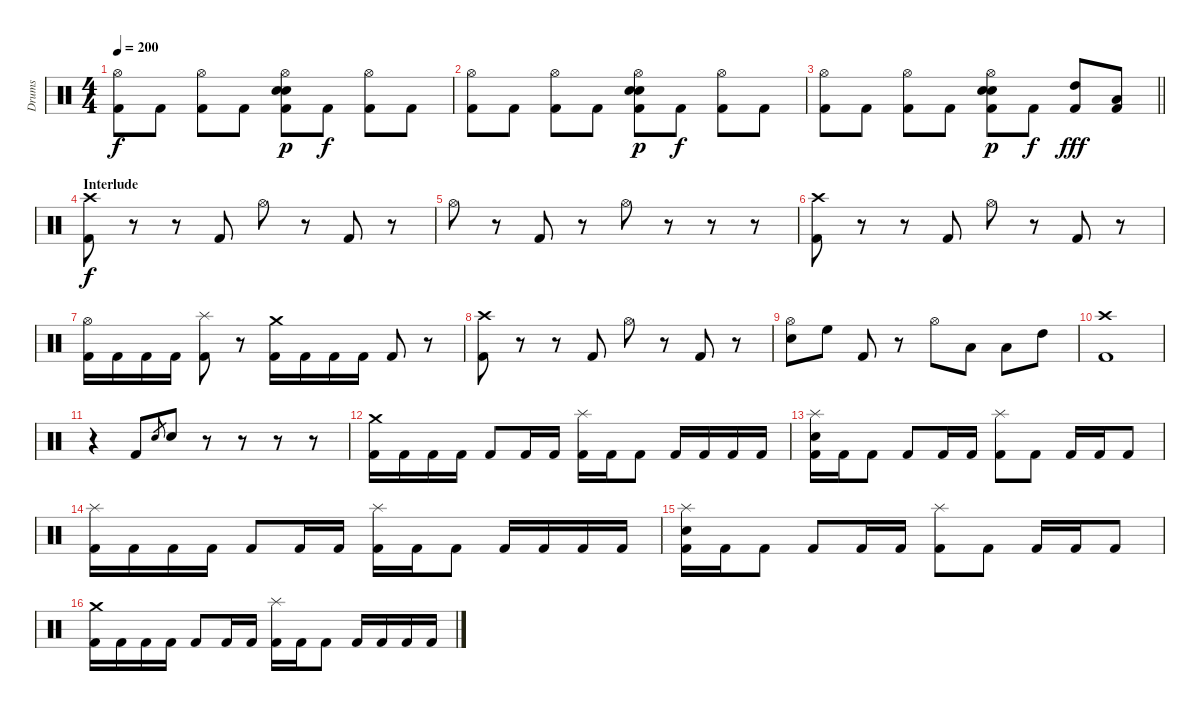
\track ("Drums" "Drums") {instrument percussion}
\staff {score}
\articulation defaults
\ts (4 4)
\tempo 200
\clef neutral
\ks c
("Hi-Hat (open)" "Kick (hit) 2").8{dy f} "Kick (hit) 2".8 ("Hi-Hat (open)" "Kick (hit) 2").8 "Kick (hit) 2".8 ("Hi-Hat (open)" "Snare (hit) 2" "Electric Snare (hit)" "Kick (hit) 2").8{dy p} "Kick (hit) 2".8{dy f} ("Hi-Hat (open)" "Kick (hit) 2").8 "Kick (hit) 2".8 |
("Hi-Hat (open)" "Kick (hit) 2").8 "Kick (hit) 2".8 ("Hi-Hat (open)" "Kick (hit) 2").8 "Kick (hit) 2".8 ("Hi-Hat (open)" "Snare (hit) 2" "Electric Snare (hit)" "Kick (hit) 2").8{dy p} "Kick (hit) 2".8{dy f} ("Hi-Hat (open)" "Kick (hit) 2").8 "Kick (hit) 2".8 |
\barLineRight lightlight
("Hi-Hat (open)" "Kick (hit) 2").8 "Kick (hit) 2".8 ("Hi-Hat (open)" "Kick (hit) 2").8 "Kick (hit) 2".8 ("Hi-Hat (open)" "Snare (hit) 2" "Electric Snare (hit)" "Kick (hit) 2").8{dy p} "Kick (hit) 2".8{dy f} ("High Tom (hit)" "Kick (hit) 2").8{dy fff} ("Low Tom (hit)" "Kick (hit) 2").8 |
\section ("" "Interlude")
("Crash high (hit)" "Kick (hit) 2").8{dy f} r.8 r.8 "Kick (hit) 2".8 "Hi-Hat (open)".8 r.8 "Kick (hit) 2".8 r.8 |
"Hi-Hat (open)".8 r.8 "Kick (hit) 2".8 r.8 "Hi-Hat (open)".8 r.8 r.8 r.8 |
("Crash high (hit)" "Kick (hit) 2").8 r.8 r.8 "Kick (hit) 2".8 "Hi-Hat (open)".8 r.8 "Kick (hit) 2".8 r.8 |
("Hi-Hat (open)" "Kick (hit) 2").16 "Kick (hit) 2".16 "Kick (hit) 2".16 "Kick (hit) 2".16 ("Splash (hit)" "Kick (hit) 2").8 r.8 ("Crash medium (hit)" "Kick (hit) 2").16 "Kick (hit) 2".16 "Kick (hit) 2".16 "Kick (hit) 2".16 "Kick (hit) 2".8 r.8 |
("Crash high (hit)" "Kick (hit) 2").8 r.8 r.8 "Kick (hit) 2".8 "Hi-Hat (open)".8 r.8 "Kick (hit) 2".8 r.8 |
("Hi-Hat (open)" "Electric Snare (hit)").8 "High Floor Tom (hit)".8 "Kick (hit) 2".8 r.8 "Hi-Hat (open)".8 "Low Tom (hit)".8 "Low Tom (hit)".8 "High Tom (hit)".8 |
("Crash high (hit)" "Kick (hit) 2").1 |
r.4 "Kick (hit) 2".8 "Electric Snare (hit)".8{gr} "Electric Snare (hit)".8 r.8 r.8 r.8 r.8 |
("Crash medium (hit)" "Kick (hit) 2").16 "Kick (hit) 2".16 "Kick (hit) 2".16 "Kick (hit) 2".16 "Kick (hit) 2".8 "Kick (hit) 2".16 "Kick (hit) 2".16 ("Splash (hit)" "Kick (hit) 2").16 "Kick (hit) 2".16 "Kick (hit) 2".8 "Kick (hit) 2".16 "Kick (hit) 2".16 "Kick (hit) 2".16 "Kick (hit) 2".16 |
("Splash (hit)" "Electric Snare (hit)" "Kick (hit) 2").16 "Kick (hit) 2".16 "Kick (hit) 2".8 "Kick (hit) 2".8 "Kick (hit) 2".16 "Kick (hit) 2".16 ("Splash (hit)" "Kick (hit) 2").8 "Kick (hit) 2".8 "Kick (hit) 2".16 "Kick (hit) 2".16 "Kick (hit) 2".8 |
("Splash (hit)" "Kick (hit) 2").16 "Kick (hit) 2".16 "Kick (hit) 2".16 "Kick (hit) 2".16 "Kick (hit) 2".8 "Kick (hit) 2".16 "Kick (hit) 2".16 ("Splash (hit)" "Kick (hit) 2").16 "Kick (hit) 2".16 "Kick (hit) 2".8 "Kick (hit) 2".16 "Kick (hit) 2".16 "Kick (hit) 2".16 "Kick (hit) 2".16 |
("Splash (hit)" "Electric Snare (hit)" "Kick (hit) 2").16 "Kick (hit) 2".16 "Kick (hit) 2".8 "Kick (hit) 2".8 "Kick (hit) 2".16 "Kick (hit) 2".16 ("Splash (hit)" "Kick (hit) 2").8 "Kick (hit) 2".8 "Kick (hit) 2".16 "Kick (hit) 2".16 "Kick (hit) 2".8 |
("Crash medium (hit)" "Kick (hit) 2").16 "Kick (hit) 2".16 "Kick (hit) 2".16 "Kick (hit) 2".16 "Kick (hit) 2".8 "Kick (hit) 2".16 "Kick (hit) 2".16 ("Splash (hit)" "Kick (hit) 2").16 "Kick (hit) 2".16 "Kick (hit) 2".8 "Kick (hit) 2".16 "Kick (hit) 2".16 "Kick (hit) 2".16 "Kick (hit) 2".16
